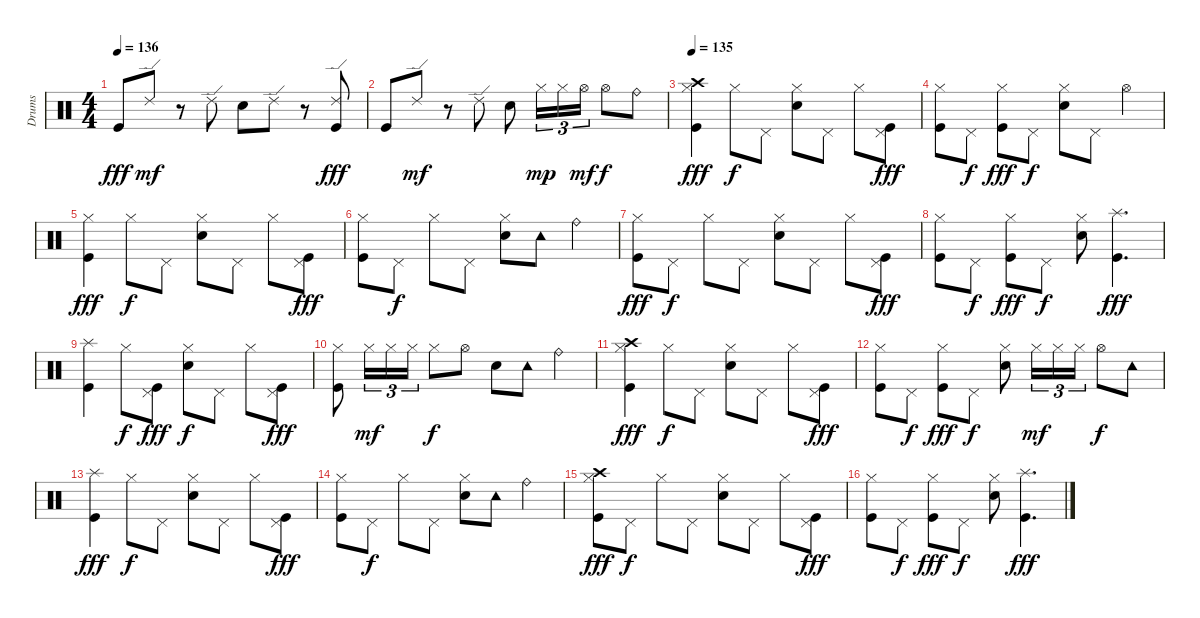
\track ("Drums" "Drums") {instrument percussion}
\staff {score}
\articulation defaults
\ts (4 4)
\tempo 136
\clef neutral
\ks c "Kick (hit)".8{dy fff} "Ride (edge) 2".8{dy mf}
r.8 "Ride (edge) 2".8 "Electric Snare (hit)".8 "Ride (edge) 2".8 r.8 ("Ride (edge) 2" "Kick (hit)").8{dy fff} |
"Kick (hit)".8 "Ride (edge) 2".8{dy mf} r.8 "Ride (edge) 2".8 "Electric Snare (hit)".8 "Hi-Hat (closed)".16{tu (3 2) dy mp} "Hi-Hat (closed)".16{tu (3 2)} "Hi-Hat (open)".16{tu (3 2) dy mf} "Hi-Hat (open)".8{dy f} "Ride (bell)".8 |
\tempo 135
("Crash high (hit)" "Hi-Hat (closed)" "Kick (hit)").4{dy fff} "Hi-Hat (closed)".8{dy f} "Pedal Hi-Hat (hit)".8 ("Hi-Hat (closed)" "Electric Snare (hit)").8 "Pedal Hi-Hat (hit)".8 "Hi-Hat (closed)".8 ("Pedal Hi-Hat (hit)" "Kick (hit)").8{dy fff} |
("Hi-Hat (closed)" "Kick (hit)").8 "Pedal Hi-Hat (hit)".8{dy f} ("Hi-Hat (closed)" "Kick (hit)").8{dy fff} "Pedal Hi-Hat (hit)".8{dy f} ("Hi-Hat (closed)" "Electric Snare (hit)").8 "Pedal Hi-Hat (hit)".8 "Hi-Hat (open)".4 |
("Hi-Hat (closed)" "Kick (hit)").4{dy fff} "Hi-Hat (closed)".8{dy f} "Pedal Hi-Hat (hit)".8 ("Hi-Hat (closed)" "Electric Snare (hit)").8 "Pedal Hi-Hat (hit)".8 "Hi-Hat (closed)".8 ("Pedal Hi-Hat (hit)" "Kick (hit)").8{dy fff} |
("Hi-Hat (closed)" "Kick (hit)").8 "Pedal Hi-Hat (hit)".8{dy f} "Hi-Hat (closed)".8 "Pedal Hi-Hat (hit)".8 ("Hi-Hat (closed)" "Electric Snare (hit)").8 "Tambourine (hit)".8 "Ride (bell)".4 |
("Hi-Hat (closed)" "Kick (hit)").8{dy fff} "Pedal Hi-Hat (hit)".8{dy f} "Hi-Hat (closed)".8 "Pedal Hi-Hat (hit)".8 ("Hi-Hat (closed)" "Electric Snare (hit)").8 "Pedal Hi-Hat (hit)".8 "Hi-Hat (closed)".8 ("Pedal Hi-Hat (hit)" "Kick (hit)").8{dy fff} |
("Hi-Hat (closed)" "Kick (hit)").8 "Pedal Hi-Hat (hit)".8{dy f} ("Hi-Hat (closed)" "Kick (hit)").8{dy fff} "Pedal Hi-Hat (hit)".8{dy f} ("Hi-Hat (closed)" "Electric Snare (hit)").8 ("Splash (hit)" "Kick (hit)").4{d dy fff} |
("Splash (hit)" "Kick (hit)").4 "Hi-Hat (closed)".8{dy f} ("Pedal Hi-Hat (hit)" "Kick (hit)").8{dy fff} ("Hi-Hat (closed)" "Electric Snare (hit)").8{dy f} "Pedal Hi-Hat (hit)".8 "Hi-Hat (closed)".8 ("Pedal Hi-Hat (hit)" "Kick (hit)").8{dy fff} |
("Hi-Hat (closed)" "Kick (hit)").8 "Hi-Hat (closed)".16{tu (3 2) dy mf} "Hi-Hat (closed)".16{tu (3 2)} "Hi-Hat (closed)".16{tu (3 2)} "Hi-Hat (closed)".8{dy f} "Hi-Hat (open)".8 "Electric Snare (hit)".8 "Tambourine (hit)".8 "Ride (bell)".4 |
("Crash high (hit)" "Hi-Hat (closed)" "Kick (hit)").4{dy fff} "Hi-Hat (closed)".8{dy f} "Pedal Hi-Hat (hit)".8 ("Hi-Hat (closed)" "Electric Snare (hit)").8 "Pedal Hi-Hat (hit)".8 "Hi-Hat (closed)".8 ("Pedal Hi-Hat (hit)" "Kick (hit)").8{dy fff} |
("Hi-Hat (closed)" "Kick (hit)").8 "Pedal Hi-Hat (hit)".8{dy f} ("Hi-Hat (closed)" "Kick (hit)").8{dy fff} "Pedal Hi-Hat (hit)".8{dy f} ("Hi-Hat (closed)" "Electric Snare (hit)").8 "Hi-Hat (closed)".16{tu (3 2) dy mf} "Hi-Hat (closed)".16{tu (3 2)} "Hi-Hat (closed)".16{tu (3 2)} "Hi-Hat (open)".8{dy f} "Tambourine (hit)".8 |
("Splash (hit)" "Kick (hit)").4{dy fff} "Hi-Hat (closed)".8{dy f} "Pedal Hi-Hat (hit)".8 ("Hi-Hat (closed)" "Electric Snare (hit)").8 "Pedal Hi-Hat (hit)".8 "Hi-Hat (closed)".8 ("Pedal Hi-Hat (hit)" "Kick (hit)").8{dy fff} |
("Hi-Hat (closed)" "Kick (hit)").8 "Pedal Hi-Hat (hit)".8{dy f} "Hi-Hat (closed)".8 "Pedal Hi-Hat (hit)".8 ("Hi-Hat (closed)" "Electric Snare (hit)").8 "Tambourine (hit)".8 "Ride (bell)".4 |
("Crash high (hit)" "Hi-Hat (closed)" "Kick (hit)").8{dy fff} "Pedal Hi-Hat (hit)".8{dy f} "Hi-Hat (closed)".8 "Pedal Hi-Hat (hit)".8 ("Hi-Hat (closed)" "Electric Snare (hit)").8 "Pedal Hi-Hat (hit)".8 "Hi-Hat (closed)".8 ("Pedal Hi-Hat (hit)" "Kick (hit)").8{dy fff} |
("Hi-Hat (closed)" "Kick (hit)").8 "Pedal Hi-Hat (hit)".8{dy f} ("Hi-Hat (closed)" "Kick (hit)").8{dy fff} "Pedal Hi-Hat (hit)".8{dy f} ("Hi-Hat (closed)" "Electric Snare (hit)").8 ("Splash (hit)" "Kick (hit)").4{d dy fff}
